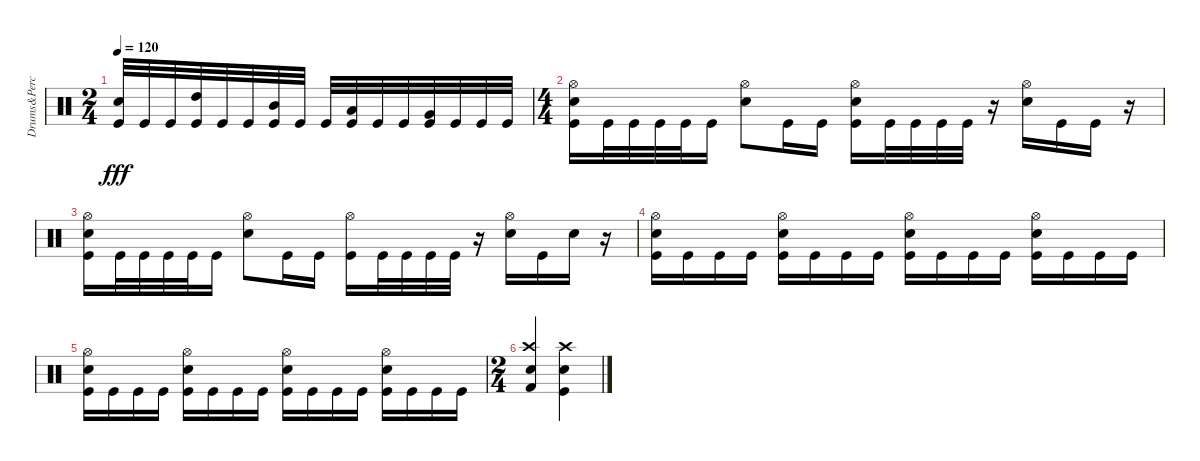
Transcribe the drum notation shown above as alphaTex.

\track ("Drums&Percusion" "Drums&Perc") {instrument percussion}
\staff {score}
\articulation defaults
\ts (2 4)
\tempo 120
\clef neutral
\ks c
("Snare (hit) 2" "Kick (hit)").32{dy fff} "Kick (hit)".32 "Kick (hit)".32 ("High Tom (hit)" "Kick (hit)").32 "Kick (hit)".32 "Kick (hit)".32 ("Mid Tom (hit)" "Kick (hit)").32 "Kick (hit)".32 "Kick (hit)".32 ("Low Tom (hit)" "Kick (hit)").32 "Kick (hit)".32 "Kick (hit)".32 ("Very Low Tom (hit)" "Kick (hit)").32 "Kick (hit)".32 "Kick (hit)".32 "Kick (hit)".32 |
\ts (4 4)
("Hi-Hat (open)" "Snare (hit) 2" "Kick (hit)").16 "Kick (hit)".32 "Kick (hit)".32 "Kick (hit)".32 "Kick (hit)".32 "Kick (hit)".16 ("Hi-Hat (open)" "Snare (hit) 2").8 "Kick (hit)".16 "Kick (hit)".16 ("Hi-Hat (open)" "Snare (hit) 2" "Kick (hit)").16 "Kick (hit)".32 "Kick (hit)".32 "Kick (hit)".32 "Kick (hit)".32 r.16 ("Hi-Hat (open)" "Snare (hit) 2").16 "Kick (hit)".16 "Kick (hit)".16 r.16 |
("Hi-Hat (open)" "Snare (hit) 2" "Kick (hit)").16 "Kick (hit)".32 "Kick (hit)".32 "Kick (hit)".32 "Kick (hit)".32 "Kick (hit)".16 ("Hi-Hat (open)" "Snare (hit) 2").8 "Kick (hit)".16 "Kick (hit)".16 ("Hi-Hat (open)" "Kick (hit)").16 "Kick (hit)".32 "Kick (hit)".32 "Kick (hit)".32 "Kick (hit)".32 r.16 ("Hi-Hat (open)" "Snare (hit) 2").16 "Kick (hit)".16 "Snare (hit) 2".16 r.16 |
("Hi-Hat (open)" "Snare (hit) 2" "Kick (hit)").16 "Kick (hit)".16 "Kick (hit)".16 "Kick (hit)".16 ("Hi-Hat (open)" "Snare (hit) 2" "Kick (hit)").16 "Kick (hit)".16 "Kick (hit)".16 "Kick (hit)".16 ("Hi-Hat (open)" "Snare (hit) 2" "Kick (hit)").16 "Kick (hit)".16 "Kick (hit)".16 "Kick (hit)".16 ("Hi-Hat (open)" "Snare (hit) 2" "Kick (hit)").16 "Kick (hit)".16 "Kick (hit)".16 "Kick (hit)".16 |
("Hi-Hat (open)" "Snare (hit) 2" "Kick (hit)").16 "Kick (hit)".16 "Kick (hit)".16 "Kick (hit)".16 ("Hi-Hat (open)" "Snare (hit) 2" "Kick (hit)").16 "Kick (hit)".16 "Kick (hit)".16 "Kick (hit)".16 ("Hi-Hat (open)" "Snare (hit) 2" "Kick (hit)").16 "Kick (hit)".16 "Kick (hit)".16 "Kick (hit)".16 ("Hi-Hat (open)" "Snare (hit) 2" "Kick (hit)").16 "Kick (hit)".16 "Kick (hit)".16 "Kick (hit)".16 |
\ts (2 4)
("Crash high (hit)" "Snare (hit) 2" "Kick (hit) 2").4 ("Crash high (hit)" "Snare (hit) 2" "Kick (hit)").4
